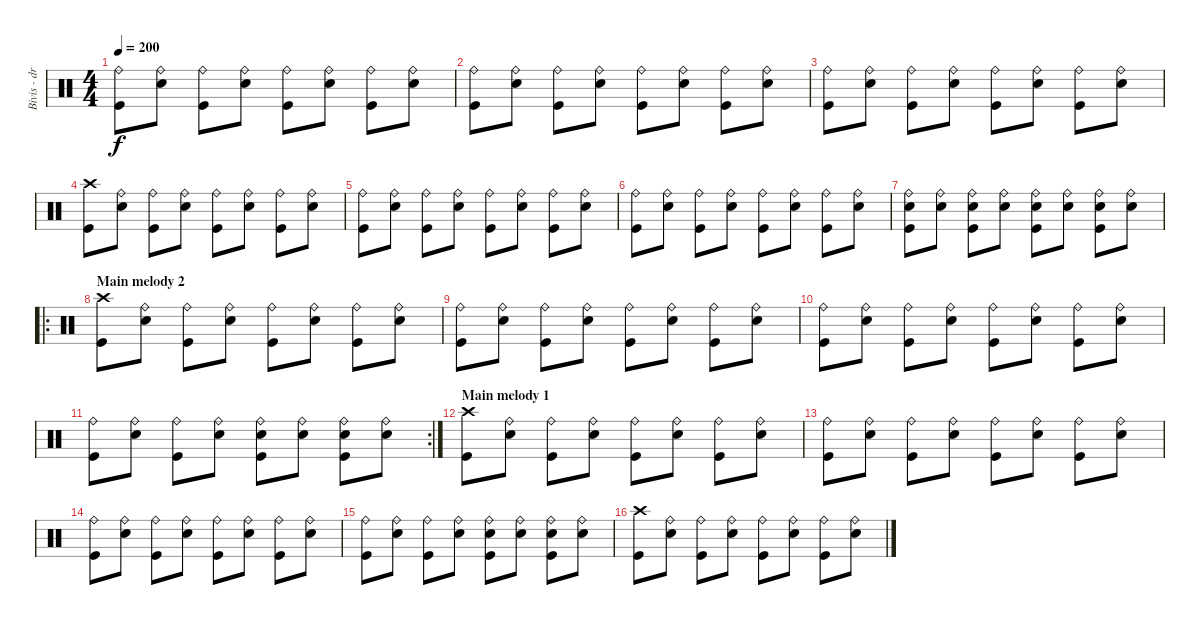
\track ("Bivis - drums" "Bivis - dr") {instrument percussion}
\staff {score}
\articulation defaults
\ts (4 4)
\tempo 200
\clef neutral
\ks c
("Ride (bell)" "Kick (hit)").8{dy f} ("Ride (bell)" "Electric Snare (hit)").8 ("Ride (bell)" "Kick (hit)").8 ("Ride (bell)" "Electric Snare (hit)").8 ("Ride (bell)" "Kick (hit)").8 ("Ride (bell)" "Electric Snare (hit)").8 ("Ride (bell)" "Kick (hit)").8 ("Ride (bell)" "Electric Snare (hit)").8 |
("Ride (bell)" "Kick (hit)").8 ("Ride (bell)" "Electric Snare (hit)").8 ("Ride (bell)" "Kick (hit)").8 ("Ride (bell)" "Electric Snare (hit)").8 ("Ride (bell)" "Kick (hit)").8 ("Ride (bell)" "Electric Snare (hit)").8 ("Ride (bell)" "Kick (hit)").8 ("Ride (bell)" "Electric Snare (hit)").8 |
("Ride (bell)" "Kick (hit)").8 ("Ride (bell)" "Electric Snare (hit)").8 ("Ride (bell)" "Kick (hit)").8 ("Ride (bell)" "Electric Snare (hit)").8 ("Ride (bell)" "Kick (hit)").8 ("Ride (bell)" "Electric Snare (hit)").8 ("Ride (bell)" "Kick (hit)").8 ("Ride (bell)" "Electric Snare (hit)").8 |
("Crash high (hit)" "Kick (hit)").8 ("Ride (bell)" "Electric Snare (hit)").8 ("Ride (bell)" "Kick (hit)").8 ("Ride (bell)" "Electric Snare (hit)").8 ("Ride (bell)" "Kick (hit)").8 ("Ride (bell)" "Electric Snare (hit)").8 ("Ride (bell)" "Kick (hit)").8 ("Ride (bell)" "Electric Snare (hit)").8 |
("Ride (bell)" "Kick (hit)").8 ("Ride (bell)" "Electric Snare (hit)").8 ("Ride (bell)" "Kick (hit)").8 ("Ride (bell)" "Electric Snare (hit)").8 ("Ride (bell)" "Kick (hit)").8 ("Ride (bell)" "Electric Snare (hit)").8 ("Ride (bell)" "Kick (hit)").8 ("Ride (bell)" "Electric Snare (hit)").8 |
("Ride (bell)" "Kick (hit)").8 ("Ride (bell)" "Electric Snare (hit)").8 ("Ride (bell)" "Kick (hit)").8 ("Ride (bell)" "Electric Snare (hit)").8 ("Ride (bell)" "Kick (hit)").8 ("Ride (bell)" "Electric Snare (hit)").8 ("Ride (bell)" "Kick (hit)").8 ("Ride (bell)" "Electric Snare (hit)").8 |
("Ride (bell)" "Electric Snare (hit)" "Kick (hit)").8 ("Ride (bell)" "Electric Snare (hit)").8 ("Ride (bell)" "Electric Snare (hit)" "Kick (hit)").8 ("Ride (bell)" "Electric Snare (hit)").8 ("Ride (bell)" "Electric Snare (hit)" "Kick (hit)").8 ("Ride (bell)" "Electric Snare (hit)").8 ("Ride (bell)" "Electric Snare (hit)" "Kick (hit)").8 ("Ride (bell)" "Electric Snare (hit)").8 |
\ro
\section ("" "Main melody 2")
("Crash high (hit)" "Kick (hit)").8 ("Ride (bell)" "Electric Snare (hit)").8 ("Ride (bell)" "Kick (hit)").8 ("Ride (bell)" "Electric Snare (hit)").8 ("Ride (bell)" "Kick (hit)").8 ("Ride (bell)" "Electric Snare (hit)").8 ("Ride (bell)" "Kick (hit)").8 ("Ride (bell)" "Electric Snare (hit)").8 |
("Ride (bell)" "Kick (hit)").8 ("Ride (bell)" "Electric Snare (hit)").8 ("Ride (bell)" "Kick (hit)").8 ("Ride (bell)" "Electric Snare (hit)").8 ("Ride (bell)" "Kick (hit)").8 ("Ride (bell)" "Electric Snare (hit)").8 ("Ride (bell)" "Kick (hit)").8 ("Ride (bell)" "Electric Snare (hit)").8 |
("Ride (bell)" "Kick (hit)").8 ("Ride (bell)" "Electric Snare (hit)").8 ("Ride (bell)" "Kick (hit)").8 ("Ride (bell)" "Electric Snare (hit)").8 ("Ride (bell)" "Kick (hit)").8 ("Ride (bell)" "Electric Snare (hit)").8 ("Ride (bell)" "Kick (hit)").8 ("Ride (bell)" "Electric Snare (hit)").8 |
\rc 2
("Ride (bell)" "Kick (hit)").8 ("Ride (bell)" "Electric Snare (hit)").8 ("Ride (bell)" "Kick (hit)").8 ("Ride (bell)" "Electric Snare (hit)").8 ("Ride (bell)" "Snare (hit) 2" "Kick (hit)").8 ("Ride (bell)" "Electric Snare (hit)").8 ("Ride (bell)" "Snare (hit) 2" "Kick (hit)").8 ("Ride (bell)" "Electric Snare (hit)").8 |
\section ("" "Main melody 1")
("Crash high (hit)" "Kick (hit)").8 ("Ride (bell)" "Electric Snare (hit)").8 ("Ride (bell)" "Kick (hit)").8 ("Ride (bell)" "Electric Snare (hit)").8 ("Ride (bell)" "Kick (hit)").8 ("Ride (bell)" "Electric Snare (hit)").8 ("Ride (bell)" "Kick (hit)").8 ("Ride (bell)" "Electric Snare (hit)").8 |
("Ride (bell)" "Kick (hit)").8 ("Ride (bell)" "Electric Snare (hit)").8 ("Ride (bell)" "Kick (hit)").8 ("Ride (bell)" "Electric Snare (hit)").8 ("Ride (bell)" "Kick (hit)").8 ("Ride (bell)" "Electric Snare (hit)").8 ("Ride (bell)" "Kick (hit)").8 ("Ride (bell)" "Electric Snare (hit)").8 |
("Ride (bell)" "Kick (hit)").8 ("Ride (bell)" "Electric Snare (hit)").8 ("Ride (bell)" "Kick (hit)").8 ("Ride (bell)" "Electric Snare (hit)").8 ("Ride (bell)" "Kick (hit)").8 ("Ride (bell)" "Electric Snare (hit)").8 ("Ride (bell)" "Kick (hit)").8 ("Ride (bell)" "Electric Snare (hit)").8 |
("Ride (bell)" "Kick (hit)").8 ("Ride (bell)" "Electric Snare (hit)").8 ("Ride (bell)" "Kick (hit)").8 ("Ride (bell)" "Electric Snare (hit)").8 ("Ride (bell)" "Snare (hit) 2" "Kick (hit)").8 ("Ride (bell)" "Electric Snare (hit)").8 ("Ride (bell)" "Snare (hit) 2" "Kick (hit)").8 ("Ride (bell)" "Electric Snare (hit)").8 |
("Crash high (hit)" "Kick (hit)").8 ("Ride (bell)" "Electric Snare (hit)").8 ("Ride (bell)" "Kick (hit)").8 ("Ride (bell)" "Electric Snare (hit)").8 ("Ride (bell)" "Kick (hit)").8 ("Ride (bell)" "Electric Snare (hit)").8 ("Ride (bell)" "Kick (hit)").8 ("Ride (bell)" "Electric Snare (hit)").8
